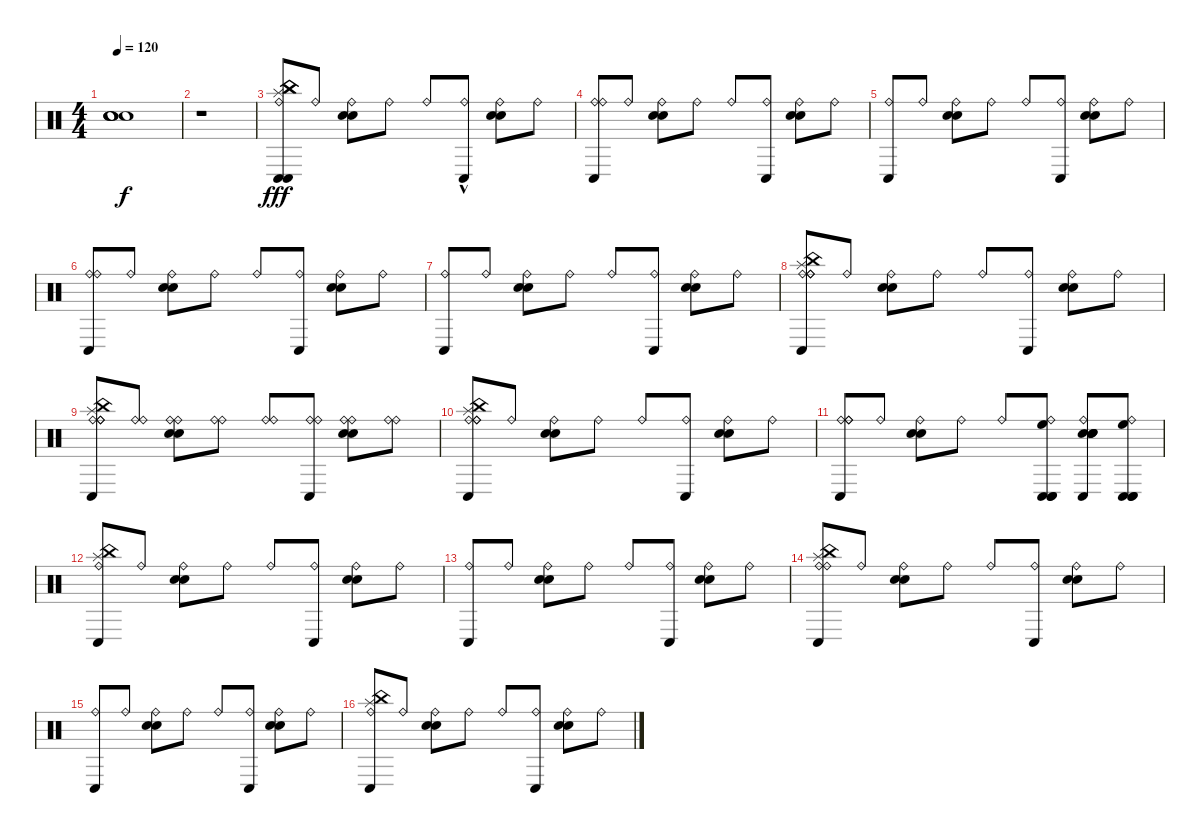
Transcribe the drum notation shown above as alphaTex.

\track "" {instrument percussion}
\staff {score}
\articulation defaults
\ts (4 4)
\tempo 120
\clef neutral
\ks c
("Snare (hit)"{t} "Snare (hit)"{t} "Snare (hit)"{t} "Snare (hit)"{t}).1{dy f} |
r.1 |
("Conga low (hit)" "Ride (bell)" "Splash (hit)" "China (hit)" "China (hit)" "Conga low (hit)").8{dy fff} "Ride (bell)".8 ("Electric Snare (hit)" "Snare (hit) 2" "Ride (bell)").8 "Ride (bell)".8 "Ride (bell)".8 ("Conga low (hit)"{hac} "Ride (bell)").8 ("Electric Snare (hit)" "Snare (hit) 2" "Ride (bell)").8 "Ride (bell)".8 |
("Conga low (hit)" "Ride (bell)" "Ride (bell)").8 "Ride (bell)".8 ("Electric Snare (hit)" "Snare (hit) 2" "Ride (bell)").8 "Ride (bell)".8 "Ride (bell)".8 ("Conga low (hit)" "Ride (bell)").8 ("Electric Snare (hit)" "Snare (hit) 2" "Ride (bell)").8 "Ride (bell)".8 |
("Conga low (hit)" "Ride (bell)").8 "Ride (bell)".8 ("Electric Snare (hit)" "Snare (hit) 2" "Ride (bell)").8 "Ride (bell)".8 "Ride (bell)".8 ("Conga low (hit)" "Ride (bell)").8 ("Electric Snare (hit)" "Snare (hit) 2" "Ride (bell)").8 "Ride (bell)".8 |
("Conga low (hit)" "Ride (bell)" "Ride (bell)").8 "Ride (bell)".8 ("Electric Snare (hit)" "Snare (hit) 2" "Ride (bell)").8 "Ride (bell)".8 "Ride (bell)".8 ("Conga low (hit)" "Ride (bell)").8 ("Electric Snare (hit)" "Snare (hit) 2" "Ride (bell)").8 "Ride (bell)".8 |
("Conga low (hit)" "Ride (bell)").8 "Ride (bell)".8 ("Electric Snare (hit)" "Snare (hit) 2" "Ride (bell)").8 "Ride (bell)".8 "Ride (bell)".8 ("Conga low (hit)" "Ride (bell)").8 ("Electric Snare (hit)" "Snare (hit) 2" "Ride (bell)").8 "Ride (bell)".8 |
("Conga low (hit)" "Splash (hit)" "Ride (bell)" "China (hit)" "Ride (bell)" "Ride (bell)").8 "Ride (bell)".8 ("Electric Snare (hit)" "Snare (hit) 2" "Ride (bell)").8 "Ride (bell)".8 "Ride (bell)".8 ("Conga low (hit)" "Ride (bell)").8 ("Electric Snare (hit)" "Snare (hit) 2" "Ride (bell)").8 "Ride (bell)".8 |
("Ride (bell)" "Conga low (hit)" "Splash (hit)" "Ride (bell)" "China (hit)" "Ride (bell)").8 ("Ride (bell)" "Ride (bell)").8 ("Ride (bell)" "Electric Snare (hit)" "Snare (hit) 2" "Ride (bell)").8 ("Ride (bell)" "Ride (bell)").8 ("Ride (bell)" "Ride (bell)").8 ("Ride (bell)" "Conga low (hit)" "Ride (bell)").8 ("Ride (bell)" "Electric Snare (hit)" "Snare (hit) 2" "Ride (bell)").8 ("Ride (bell)" "Ride (bell)").8 |
("Conga low (hit)" "Splash (hit)" "Ride (bell)" "China (hit)" "Ride (bell)" "Ride (bell)").8 "Ride (bell)".8 ("Electric Snare (hit)" "Snare (hit) 2" "Ride (bell)").8 "Ride (bell)".8 "Ride (bell)".8 ("Conga low (hit)" "Ride (bell)").8 ("Electric Snare (hit)" "Snare (hit) 2" "Ride (bell)").8 "Ride (bell)".8 |
("Conga low (hit)" "Ride (bell)" "Ride (bell)" "Ride (bell)").8 "Ride (bell)".8 ("Electric Snare (hit)" "Snare (hit) 2" "Ride (bell)").8 "Ride (bell)".8 "Ride (bell)".8 ("Conga low (hit)" "Ride (bell)" "High Floor Tom (hit)" "Conga low (hit)" "Conga low (hit)").8 ("Electric Snare (hit)" "Snare (hit) 2" "Ride (bell)" "Conga low (hit)" "Electric Snare (hit)" "Snare (hit) 2").8 ("Ride (bell)" "Conga low (hit)" "High Floor Tom (hit)" "Conga low (hit)" "Conga low (hit)").8 |
("Conga low (hit)" "Splash (hit)" "China (hit)" "Ride (bell)").8 "Ride (bell)".8 ("Electric Snare (hit)" "Snare (hit) 2" "Ride (bell)").8 "Ride (bell)".8 "Ride (bell)".8 ("Conga low (hit)" "Ride (bell)").8 ("Electric Snare (hit)" "Snare (hit) 2" "Ride (bell)").8 "Ride (bell)".8 |
("Conga low (hit)" "Ride (bell)").8 "Ride (bell)".8 ("Electric Snare (hit)" "Snare (hit) 2" "Ride (bell)").8 "Ride (bell)".8 "Ride (bell)".8 ("Conga low (hit)" "Ride (bell)").8 ("Electric Snare (hit)" "Snare (hit) 2" "Ride (bell)").8 "Ride (bell)".8 |
("Conga low (hit)" "Splash (hit)" "Ride (bell)" "China (hit)" "Ride (bell)").8 "Ride (bell)".8 ("Electric Snare (hit)" "Snare (hit) 2" "Ride (bell)").8 "Ride (bell)".8 "Ride (bell)".8 ("Conga low (hit)" "Ride (bell)").8 ("Electric Snare (hit)" "Snare (hit) 2" "Ride (bell)").8 "Ride (bell)".8 |
("Conga low (hit)" "Ride (bell)").8 "Ride (bell)".8 ("Electric Snare (hit)" "Snare (hit) 2" "Ride (bell)").8 "Ride (bell)".8 "Ride (bell)".8 ("Conga low (hit)" "Ride (bell)").8 ("Electric Snare (hit)" "Snare (hit) 2" "Ride (bell)").8 "Ride (bell)".8 |
("Conga low (hit)" "Splash (hit)" "China (hit)" "Ride (bell)").8 "Ride (bell)".8 ("Electric Snare (hit)" "Snare (hit) 2" "Ride (bell)").8 "Ride (bell)".8 "Ride (bell)".8 ("Conga low (hit)" "Ride (bell)").8 ("Electric Snare (hit)" "Snare (hit) 2" "Ride (bell)").8 "Ride (bell)".8
